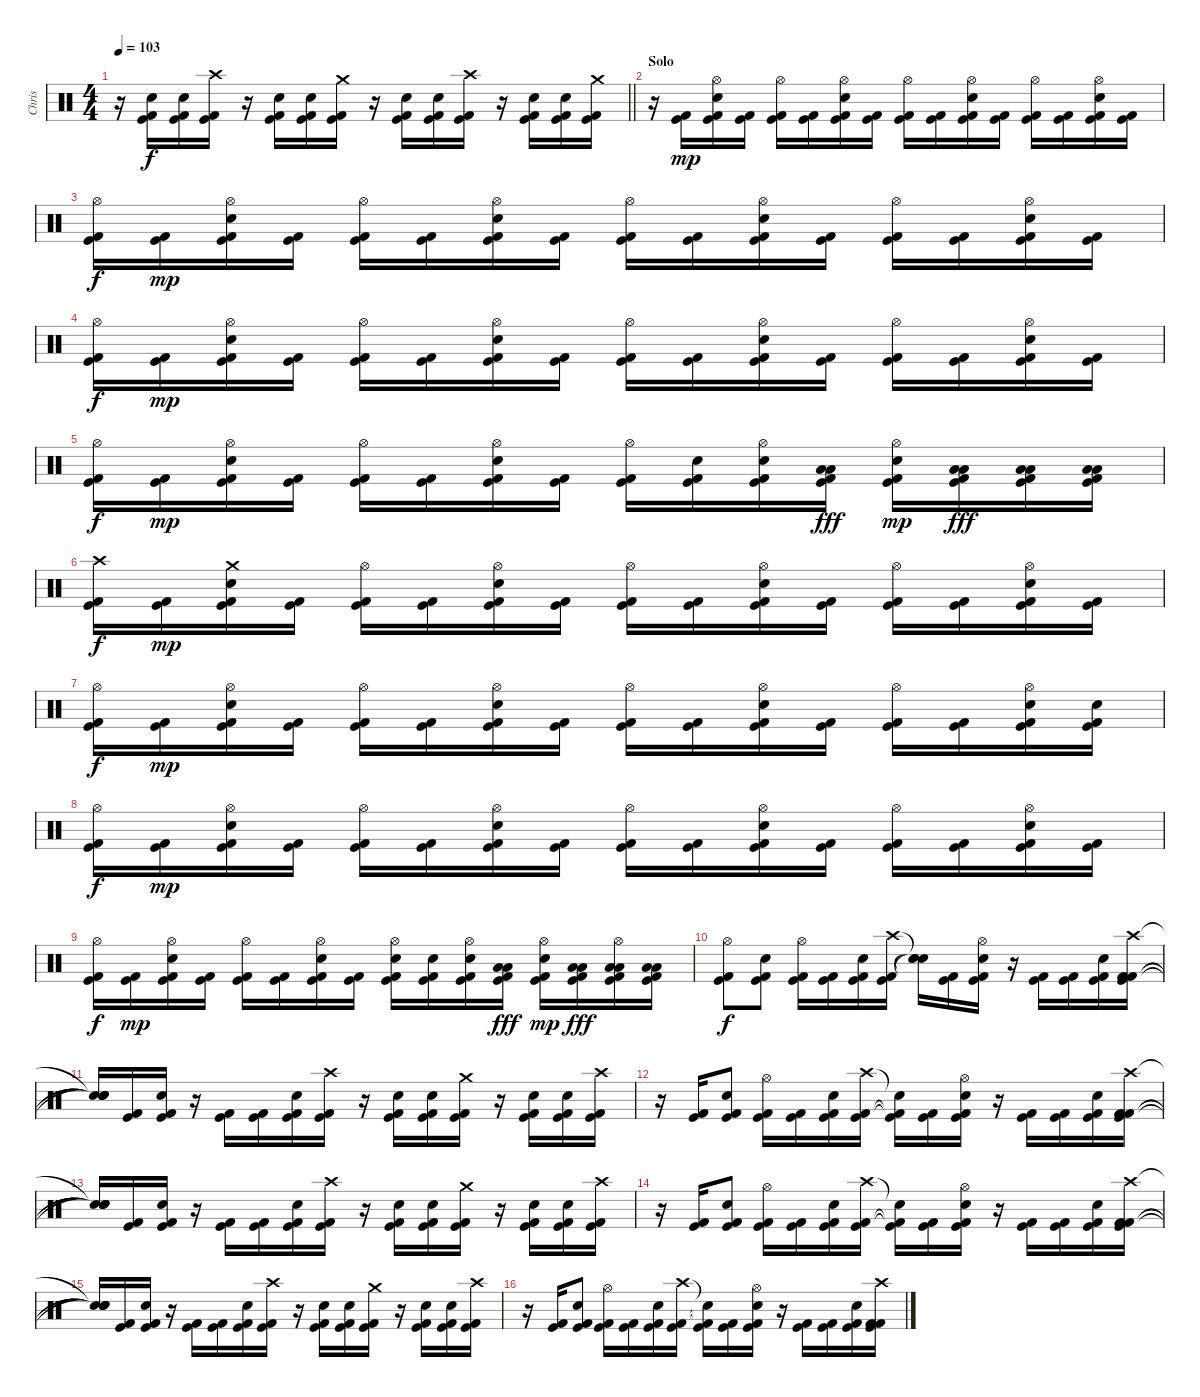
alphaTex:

\track ("Chris" "Chris") {instrument percussion}
\staff {score}
\articulation defaults
\ts (4 4)
\tempo 103
\clef neutral
\barLineRight lightlight
\ks c
r.16{dy f} ("Kick (hit)" "Kick (hit) 2" "Electric Snare (hit)").16 ("Kick (hit)" "Kick (hit) 2" "Electric Snare (hit)").16 ("Kick (hit)" "Kick (hit) 2" "Crash high (hit)").16 r.16 ("Kick (hit)" "Kick (hit) 2" "Electric Snare (hit)").16 ("Kick (hit)" "Kick (hit) 2" "Electric Snare (hit)").16 ("Kick (hit)" "Kick (hit) 2" "Crash medium (hit)").16 r.16 ("Kick (hit)" "Kick (hit) 2" "Electric Snare (hit)").16 ("Kick (hit)" "Kick (hit) 2" "Electric Snare (hit)").16 ("Kick (hit)" "Kick (hit) 2" "Crash high (hit)").16 r.16 ("Kick (hit)" "Kick (hit) 2" "Electric Snare (hit)").16 ("Kick (hit)" "Kick (hit) 2" "Electric Snare (hit)").16 ("Kick (hit)" "Kick (hit) 2" "Crash medium (hit)").16 |
\section ("" "Solo")
r.16 ("Kick (hit)" "Kick (hit) 2").16{dy mp} ("Kick (hit)" "Kick (hit) 2" "Electric Snare (hit)" "Hi-Hat (open)").16 ("Kick (hit)" "Kick (hit) 2").16 ("Kick (hit)" "Kick (hit) 2" "Hi-Hat (open)").16 ("Kick (hit)" "Kick (hit) 2").16 ("Kick (hit)" "Kick (hit) 2" "Electric Snare (hit)" "Hi-Hat (open)").16 ("Kick (hit)" "Kick (hit) 2").16 ("Kick (hit)" "Kick (hit) 2" "Hi-Hat (open)").16 ("Kick (hit)" "Kick (hit) 2").16 ("Kick (hit)" "Kick (hit) 2" "Electric Snare (hit)" "Hi-Hat (open)").16 ("Kick (hit)" "Kick (hit) 2").16 ("Kick (hit)" "Kick (hit) 2" "Hi-Hat (open)").16 ("Kick (hit)" "Kick (hit) 2").16 ("Kick (hit)" "Kick (hit) 2" "Electric Snare (hit)" "Hi-Hat (open)").16 ("Kick (hit)" "Kick (hit) 2").16 |
("Kick (hit)" "Kick (hit) 2" "Hi-Hat (open)").16{dy f} ("Kick (hit)" "Kick (hit) 2").16{dy mp} ("Kick (hit)" "Kick (hit) 2" "Electric Snare (hit)" "Hi-Hat (open)").16 ("Kick (hit)" "Kick (hit) 2").16 ("Kick (hit)" "Kick (hit) 2" "Hi-Hat (open)").16 ("Kick (hit)" "Kick (hit) 2").16 ("Kick (hit)" "Kick (hit) 2" "Electric Snare (hit)" "Hi-Hat (open)").16 ("Kick (hit)" "Kick (hit) 2").16 ("Kick (hit)" "Kick (hit) 2" "Hi-Hat (open)").16 ("Kick (hit)" "Kick (hit) 2").16 ("Kick (hit)" "Kick (hit) 2" "Electric Snare (hit)" "Hi-Hat (open)").16 ("Kick (hit)" "Kick (hit) 2").16 ("Kick (hit)" "Kick (hit) 2" "Hi-Hat (open)").16 ("Kick (hit)" "Kick (hit) 2").16 ("Kick (hit)" "Kick (hit) 2" "Electric Snare (hit)" "Hi-Hat (open)").16 ("Kick (hit)" "Kick (hit) 2").16 |
("Kick (hit)" "Kick (hit) 2" "Hi-Hat (open)").16{dy f} ("Kick (hit)" "Kick (hit) 2").16{dy mp} ("Kick (hit)" "Kick (hit) 2" "Electric Snare (hit)" "Hi-Hat (open)").16 ("Kick (hit)" "Kick (hit) 2").16 ("Kick (hit)" "Kick (hit) 2" "Hi-Hat (open)").16 ("Kick (hit)" "Kick (hit) 2").16 ("Kick (hit)" "Kick (hit) 2" "Electric Snare (hit)" "Hi-Hat (open)").16 ("Kick (hit)" "Kick (hit) 2").16 ("Kick (hit)" "Kick (hit) 2" "Hi-Hat (open)").16 ("Kick (hit)" "Kick (hit) 2").16 ("Kick (hit)" "Kick (hit) 2" "Electric Snare (hit)" "Hi-Hat (open)").16 ("Kick (hit)" "Kick (hit) 2").16 ("Kick (hit)" "Kick (hit) 2" "Hi-Hat (open)").16 ("Kick (hit)" "Kick (hit) 2").16 ("Kick (hit)" "Kick (hit) 2" "Electric Snare (hit)" "Hi-Hat (open)").16 ("Kick (hit)" "Kick (hit) 2").16 |
("Kick (hit)" "Kick (hit) 2" "Hi-Hat (open)").16{dy f} ("Kick (hit)" "Kick (hit) 2").16{dy mp} ("Kick (hit)" "Kick (hit) 2" "Electric Snare (hit)" "Hi-Hat (open)").16 ("Kick (hit)" "Kick (hit) 2").16 ("Kick (hit)" "Kick (hit) 2" "Hi-Hat (open)").16 ("Kick (hit)" "Kick (hit) 2").16 ("Kick (hit)" "Kick (hit) 2" "Electric Snare (hit)" "Hi-Hat (open)").16 ("Kick (hit)" "Kick (hit) 2").16 ("Kick (hit)" "Kick (hit) 2" "Hi-Hat (open)").16 ("Kick (hit)" "Kick (hit) 2" "Electric Snare (hit)").16 ("Kick (hit)" "Kick (hit) 2" "Electric Snare (hit)" "Hi-Hat (open)").16 ("Kick (hit)" "Kick (hit) 2" "Low Tom (hit)" "Low Tom (hit)").16{dy fff} ("Kick (hit)" "Kick (hit) 2" "Electric Snare (hit)" "Hi-Hat (open)").16{dy mp} ("Kick (hit)" "Kick (hit) 2" "Low Tom (hit)" "Low Tom (hit)").16{dy fff} ("Kick (hit)" "Kick (hit) 2" "Low Tom (hit)" "Low Tom (hit)").16 ("Kick (hit)" "Kick (hit) 2" "Low Tom (hit)" "Low Tom (hit)").16 |
("Kick (hit)" "Kick (hit) 2" "Crash high (hit)").16{dy f} ("Kick (hit)" "Kick (hit) 2").16{dy mp} ("Kick (hit)" "Kick (hit) 2" "Electric Snare (hit)" "Crash medium (hit)").16 ("Kick (hit)" "Kick (hit) 2").16 ("Kick (hit)" "Kick (hit) 2" "Hi-Hat (open)").16 ("Kick (hit)" "Kick (hit) 2").16 ("Kick (hit)" "Kick (hit) 2" "Electric Snare (hit)" "Hi-Hat (open)").16 ("Kick (hit)" "Kick (hit) 2").16 ("Kick (hit)" "Kick (hit) 2" "Hi-Hat (open)").16 ("Kick (hit)" "Kick (hit) 2").16 ("Kick (hit)" "Kick (hit) 2" "Electric Snare (hit)" "Hi-Hat (open)").16 ("Kick (hit)" "Kick (hit) 2").16 ("Kick (hit)" "Kick (hit) 2" "Hi-Hat (open)").16 ("Kick (hit)" "Kick (hit) 2").16 ("Kick (hit)" "Kick (hit) 2" "Electric Snare (hit)" "Hi-Hat (open)").16 ("Kick (hit)" "Kick (hit) 2").16 |
("Kick (hit)" "Kick (hit) 2" "Hi-Hat (open)").16{dy f} ("Kick (hit)" "Kick (hit) 2").16{dy mp} ("Kick (hit)" "Kick (hit) 2" "Electric Snare (hit)" "Hi-Hat (open)").16 ("Kick (hit)" "Kick (hit) 2").16 ("Kick (hit)" "Kick (hit) 2" "Hi-Hat (open)").16 ("Kick (hit)" "Kick (hit) 2").16 ("Kick (hit)" "Kick (hit) 2" "Electric Snare (hit)" "Hi-Hat (open)").16 ("Kick (hit)" "Kick (hit) 2").16 ("Kick (hit)" "Kick (hit) 2" "Hi-Hat (open)").16 ("Kick (hit)" "Kick (hit) 2").16 ("Kick (hit)" "Kick (hit) 2" "Electric Snare (hit)" "Hi-Hat (open)").16 ("Kick (hit)" "Kick (hit) 2").16 ("Kick (hit)" "Kick (hit) 2" "Hi-Hat (open)").16 ("Kick (hit)" "Kick (hit) 2").16 ("Kick (hit)" "Kick (hit) 2" "Electric Snare (hit)" "Hi-Hat (open)").16 ("Kick (hit)" "Kick (hit) 2" "Electric Snare (hit)").16 |
("Kick (hit)" "Kick (hit) 2" "Hi-Hat (open)").16{dy f} ("Kick (hit)" "Kick (hit) 2").16{dy mp} ("Kick (hit)" "Kick (hit) 2" "Electric Snare (hit)" "Hi-Hat (open)").16 ("Kick (hit)" "Kick (hit) 2").16 ("Kick (hit)" "Kick (hit) 2" "Hi-Hat (open)").16 ("Kick (hit)" "Kick (hit) 2").16 ("Kick (hit)" "Kick (hit) 2" "Electric Snare (hit)" "Hi-Hat (open)").16 ("Kick (hit)" "Kick (hit) 2").16 ("Kick (hit)" "Kick (hit) 2" "Hi-Hat (open)").16 ("Kick (hit)" "Kick (hit) 2").16 ("Kick (hit)" "Kick (hit) 2" "Electric Snare (hit)" "Hi-Hat (open)").16 ("Kick (hit)" "Kick (hit) 2").16 ("Kick (hit)" "Kick (hit) 2" "Hi-Hat (open)").16 ("Kick (hit)" "Kick (hit) 2").16 ("Kick (hit)" "Kick (hit) 2" "Electric Snare (hit)" "Hi-Hat (open)").16 ("Kick (hit)" "Kick (hit) 2").16 |
("Kick (hit)" "Kick (hit) 2" "Hi-Hat (open)").16{dy f} ("Kick (hit)" "Kick (hit) 2").16{dy mp} ("Kick (hit)" "Kick (hit) 2" "Electric Snare (hit)" "Hi-Hat (open)").16 ("Kick (hit)" "Kick (hit) 2").16 ("Kick (hit)" "Kick (hit) 2" "Hi-Hat (open)").16 ("Kick (hit)" "Kick (hit) 2").16 ("Kick (hit)" "Kick (hit) 2" "Electric Snare (hit)" "Hi-Hat (open)").16 ("Kick (hit)" "Kick (hit) 2").16 ("Kick (hit)" "Kick (hit) 2" "Electric Snare (hit)" "Hi-Hat (open)").16 ("Kick (hit)" "Kick (hit) 2" "Electric Snare (hit)").16 ("Kick (hit)" "Kick (hit) 2" "Electric Snare (hit)" "Hi-Hat (open)").16 ("Kick (hit)" "Kick (hit) 2" "Low Tom (hit)" "Low Tom (hit)").16{dy fff} ("Kick (hit)" "Kick (hit) 2" "Electric Snare (hit)" "Hi-Hat (open)").16{dy mp} ("Kick (hit)" "Kick (hit) 2" "Low Tom (hit)" "Low Tom (hit)").16{dy fff} ("Kick (hit)" "Kick (hit) 2" "Low Tom (hit)" "Hi-Hat (open)" "Low Tom (hit)").16 ("Kick (hit)" "Kick (hit) 2" "Low Tom (hit)" "Low Tom (hit)").16 |
("Kick (hit)" "Kick (hit) 2" "Hi-Hat (open)").8{dy f} ("Kick (hit)" "Kick (hit) 2" "Electric Snare (hit)").8 ("Kick (hit)" "Kick (hit) 2" "Hi-Hat (open)").16 ("Kick (hit)" "Kick (hit) 2").16 ("Kick (hit)" "Kick (hit) 2" "Electric Snare (hit)").16 ("Kick (hit)" "Kick (hit) 2" "Crash high (hit)").16 ("Snare (hit)"{t} "Snare (hit)"{t} "Snare (hit)"{t}).16 ("Kick (hit)" "Kick (hit) 2").16 ("Kick (hit)" "Kick (hit) 2" "Electric Snare (hit)" "Hi-Hat (open)").16 r.16 ("Kick (hit)" "Kick (hit) 2").16 ("Kick (hit)" "Kick (hit) 2").16 ("Kick (hit)" "Kick (hit) 2" "Electric Snare (hit)").16 ("Kick (hit)" "Kick (hit) 2" "Kick (hit) 2" "Crash high (hit)").16 |
("Snare (hit)"{t} "Snare (hit)"{t} "Snare (hit)"{t} "Snare (hit)"{t}).16 ("Kick (hit)" "Kick (hit) 2").16 ("Kick (hit)" "Kick (hit) 2" "Electric Snare (hit)").16 r.16 ("Kick (hit)" "Kick (hit) 2").16 ("Kick (hit)" "Kick (hit) 2").16 ("Kick (hit)" "Kick (hit) 2" "Electric Snare (hit)").16 ("Kick (hit)" "Kick (hit) 2" "Crash high (hit)").16 r.16 ("Kick (hit)" "Kick (hit) 2" "Electric Snare (hit)").16 ("Kick (hit)" "Kick (hit) 2" "Electric Snare (hit)").16 ("Kick (hit)" "Kick (hit) 2" "Crash medium (hit)").16 r.16 ("Kick (hit)" "Kick (hit) 2" "Electric Snare (hit)").16 ("Kick (hit)" "Kick (hit) 2" "Electric Snare (hit)").16 ("Kick (hit)" "Kick (hit) 2" "Crash high (hit)").16 |
r.16 ("Kick (hit)" "Kick (hit) 2").16 ("Kick (hit)" "Kick (hit) 2" "Electric Snare (hit)").8 ("Kick (hit)" "Kick (hit) 2" "Hi-Hat (open)").16 ("Kick (hit)" "Kick (hit) 2").16 ("Kick (hit)" "Kick (hit) 2" "Electric Snare (hit)").16 ("Kick (hit)" "Kick (hit) 2" "Crash high (hit)").16 ("Kick (hit)"{t} "Kick (hit) 2"{t} "Snare (hit)"{t}).16 ("Kick (hit)" "Kick (hit) 2").16 ("Kick (hit)" "Kick (hit) 2" "Electric Snare (hit)" "Hi-Hat (open)").16 r.16 ("Kick (hit)" "Kick (hit) 2").16 ("Kick (hit)" "Kick (hit) 2").16 ("Kick (hit)" "Kick (hit) 2" "Electric Snare (hit)").16 ("Kick (hit)" "Kick (hit) 2" "Kick (hit) 2" "Crash high (hit)").16 |
("Snare (hit)"{t} "Snare (hit)"{t} "Snare (hit)"{t} "Snare (hit)"{t}).16 ("Kick (hit)" "Kick (hit) 2").16 ("Kick (hit)" "Kick (hit) 2" "Electric Snare (hit)").16 r.16 ("Kick (hit)" "Kick (hit) 2").16 ("Kick (hit)" "Kick (hit) 2").16 ("Kick (hit)" "Kick (hit) 2" "Electric Snare (hit)").16 ("Kick (hit)" "Kick (hit) 2" "Crash high (hit)").16 r.16 ("Kick (hit)" "Kick (hit) 2" "Electric Snare (hit)").16 ("Kick (hit)" "Kick (hit) 2" "Electric Snare (hit)").16 ("Kick (hit)" "Kick (hit) 2" "Crash medium (hit)").16 r.16 ("Kick (hit)" "Kick (hit) 2" "Electric Snare (hit)").16 ("Kick (hit)" "Kick (hit) 2" "Electric Snare (hit)").16 ("Kick (hit)" "Kick (hit) 2" "Crash high (hit)").16 |
r.16 ("Kick (hit)" "Kick (hit) 2").16 ("Kick (hit)" "Kick (hit) 2" "Electric Snare (hit)").8 ("Kick (hit)" "Kick (hit) 2" "Hi-Hat (open)").16 ("Kick (hit)" "Kick (hit) 2").16 ("Kick (hit)" "Kick (hit) 2" "Electric Snare (hit)").16 ("Kick (hit)" "Kick (hit) 2" "Crash high (hit)").16 ("Kick (hit)"{t} "Kick (hit) 2"{t} "Snare (hit)"{t}).16 ("Kick (hit)" "Kick (hit) 2").16 ("Kick (hit)" "Kick (hit) 2" "Electric Snare (hit)" "Hi-Hat (open)").16 r.16 ("Kick (hit)" "Kick (hit) 2").16 ("Kick (hit)" "Kick (hit) 2").16 ("Kick (hit)" "Kick (hit) 2" "Electric Snare (hit)").16 ("Kick (hit)" "Kick (hit) 2" "Kick (hit) 2" "Crash high (hit)").16 |
("Snare (hit)"{t} "Snare (hit)"{t} "Snare (hit)"{t} "Snare (hit)"{t}).16 ("Kick (hit)" "Kick (hit) 2").16 ("Kick (hit)" "Kick (hit) 2" "Electric Snare (hit)").16 r.16 ("Kick (hit)" "Kick (hit) 2").16 ("Kick (hit)" "Kick (hit) 2").16 ("Kick (hit)" "Kick (hit) 2" "Electric Snare (hit)").16 ("Kick (hit)" "Kick (hit) 2" "Crash high (hit)").16 r.16 ("Kick (hit)" "Kick (hit) 2" "Electric Snare (hit)").16 ("Kick (hit)" "Kick (hit) 2" "Electric Snare (hit)").16 ("Kick (hit)" "Kick (hit) 2" "Crash medium (hit)").16 r.16 ("Kick (hit)" "Kick (hit) 2" "Electric Snare (hit)").16 ("Kick (hit)" "Kick (hit) 2" "Electric Snare (hit)").16 ("Kick (hit)" "Kick (hit) 2" "Crash high (hit)").16 |
r.16 ("Kick (hit)" "Kick (hit) 2").16 ("Kick (hit)" "Kick (hit) 2" "Electric Snare (hit)").8 ("Kick (hit)" "Kick (hit) 2" "Hi-Hat (open)").16 ("Kick (hit)" "Kick (hit) 2").16 ("Kick (hit)" "Kick (hit) 2" "Electric Snare (hit)").16 ("Kick (hit)" "Kick (hit) 2" "Crash high (hit)").16 ("Kick (hit)"{t} "Kick (hit) 2"{t} "Snare (hit)"{t}).16 ("Kick (hit)" "Kick (hit) 2").16 ("Kick (hit)" "Kick (hit) 2" "Electric Snare (hit)" "Hi-Hat (open)").16 r.16 ("Kick (hit)" "Kick (hit) 2").16 ("Kick (hit)" "Kick (hit) 2").16 ("Kick (hit)" "Kick (hit) 2" "Electric Snare (hit)").16 ("Kick (hit)" "Kick (hit) 2" "Kick (hit) 2" "Crash high (hit)").16
